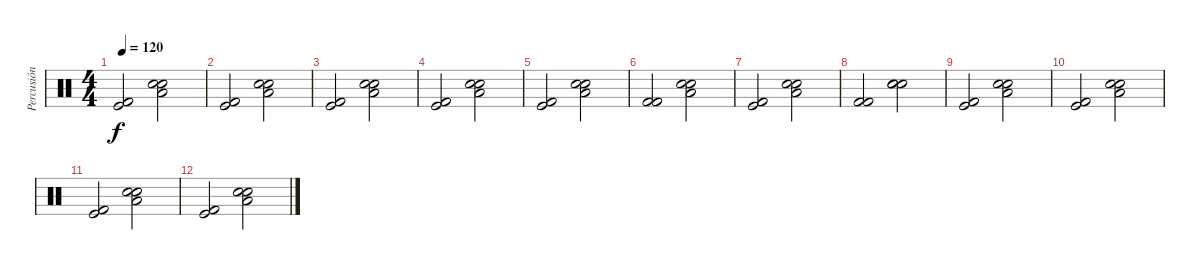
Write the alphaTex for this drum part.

\track ("Percusión" "Percusión") {instrument percussion}
\staff {score}
\articulation defaults
\ts (4 4)
\tempo 120
\clef neutral
\ks c
("Kick (hit) 2" "Kick (hit)").2{dy f} ("Electric Snare (hit)" "Snare (hit) 2" "Low Floor Tom (hit)").2 |
("Kick (hit) 2" "Kick (hit)").2 ("Electric Snare (hit)" "Snare (hit) 2" "Low Floor Tom (hit)").2 |
("Kick (hit) 2" "Kick (hit)").2 ("Electric Snare (hit)" "Snare (hit) 2" "Low Floor Tom (hit)").2 |
("Kick (hit) 2" "Kick (hit)").2 ("Electric Snare (hit)" "Snare (hit) 2" "Low Floor Tom (hit)").2 |
("Kick (hit) 2" "Kick (hit)").2 ("Electric Snare (hit)" "Snare (hit) 2" "Low Floor Tom (hit)").2 |
("Kick (hit) 2" "Kick (hit) 2").2 ("Electric Snare (hit)" "Snare (hit) 2" "Low Floor Tom (hit)").2 |
("Kick (hit) 2" "Kick (hit)").2 ("Snare (hit) 2" "Electric Snare (hit)" "Low Floor Tom (hit)").2 |
("Kick (hit) 2" "Kick (hit) 2").2 ("Electric Snare (hit)" "Electric Snare (hit)" "Snare (hit) 2").2 |
("Kick (hit) 2" "Kick (hit)").2 ("Electric Snare (hit)" "Snare (hit) 2" "Low Floor Tom (hit)").2 |
("Kick (hit) 2" "Kick (hit)").2 ("Electric Snare (hit)" "Snare (hit) 2" "Low Floor Tom (hit)").2 |
("Kick (hit) 2" "Kick (hit)").2 ("Electric Snare (hit)" "Snare (hit) 2" "Low Floor Tom (hit)").2 |
("Kick (hit) 2" "Kick (hit)").2 ("Electric Snare (hit)" "Snare (hit) 2" "Low Floor Tom (hit)").2
